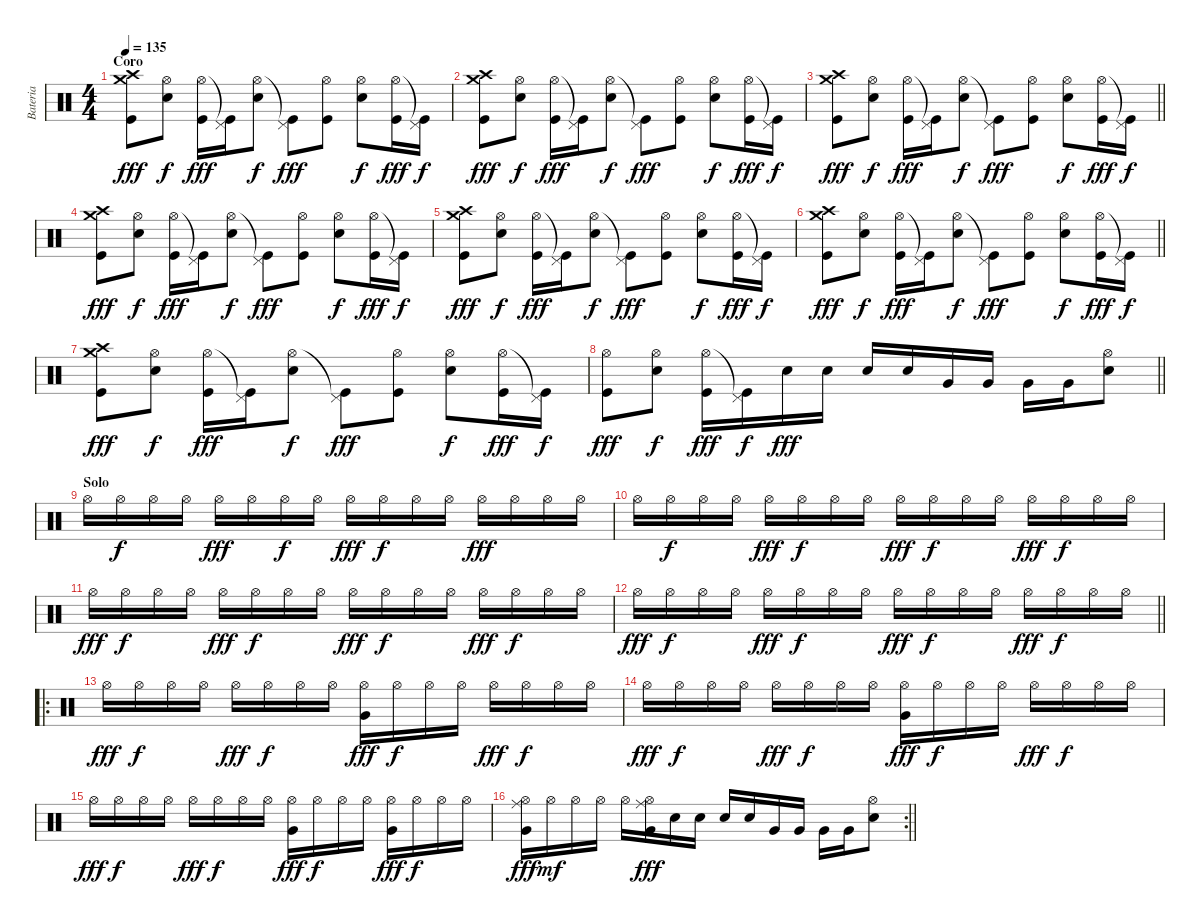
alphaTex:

\track ("Bateria" "Bateria") {instrument percussion}
\staff {score}
\articulation defaults
\ts (4 4)
\section ("" "Coro")
\tempo 135
\clef neutral
\ks c
("Crash high (hit)" "Crash medium (hit)" "Kick (hit)").8{dy fff} ("Hi-Hat (open)" "Electric Snare (hit)").8{dy f} ("Hi-Hat (open)" "Kick (hit)").16{dy fff} ("Pedal Hi-Hat (hit)"{t} "Kick (hit)").16 ("Hi-Hat (open)" "Electric Snare (hit)").8{dy f} ("Pedal Hi-Hat (hit)"{t} "Kick (hit)").8{dy fff} ("Hi-Hat (open)" "Kick (hit)").8 ("Hi-Hat (open)" "Electric Snare (hit)").8{dy f} ("Hi-Hat (open)" "Kick (hit)").16{dy fff} ("Pedal Hi-Hat (hit)"{t} "Kick (hit)").16{dy f} |
("Crash high (hit)" "Crash medium (hit)" "Kick (hit)").8{dy fff} ("Hi-Hat (open)" "Electric Snare (hit)").8{dy f} ("Hi-Hat (open)" "Kick (hit)").16{dy fff} ("Pedal Hi-Hat (hit)"{t} "Kick (hit)").16 ("Hi-Hat (open)" "Electric Snare (hit)").8{dy f} ("Pedal Hi-Hat (hit)"{t} "Kick (hit)").8{dy fff} ("Hi-Hat (open)" "Kick (hit)").8 ("Hi-Hat (open)" "Electric Snare (hit)").8{dy f} ("Hi-Hat (open)" "Kick (hit)").16{dy fff} ("Pedal Hi-Hat (hit)"{t} "Kick (hit)").16{dy f} |
\barLineRight lightlight
("Crash high (hit)" "Crash medium (hit)" "Kick (hit)").8{dy fff} ("Hi-Hat (open)" "Electric Snare (hit)").8{dy f} ("Hi-Hat (open)" "Kick (hit)").16{dy fff} ("Pedal Hi-Hat (hit)"{t} "Kick (hit)").16 ("Hi-Hat (open)" "Electric Snare (hit)").8{dy f} ("Pedal Hi-Hat (hit)"{t} "Kick (hit)").8{dy fff} ("Hi-Hat (open)" "Kick (hit)").8 ("Hi-Hat (open)" "Electric Snare (hit)").8{dy f} ("Hi-Hat (open)" "Kick (hit)").16{dy fff} ("Pedal Hi-Hat (hit)"{t} "Kick (hit)").16{dy f} |
("Crash high (hit)" "Crash medium (hit)" "Kick (hit)").8{dy fff} ("Hi-Hat (open)" "Electric Snare (hit)").8{dy f} ("Hi-Hat (open)" "Kick (hit)").16{dy fff} ("Pedal Hi-Hat (hit)"{t} "Kick (hit)").16 ("Hi-Hat (open)" "Electric Snare (hit)").8{dy f} ("Pedal Hi-Hat (hit)"{t} "Kick (hit)").8{dy fff} ("Hi-Hat (open)" "Kick (hit)").8 ("Hi-Hat (open)" "Electric Snare (hit)").8{dy f} ("Hi-Hat (open)" "Kick (hit)").16{dy fff} ("Pedal Hi-Hat (hit)"{t} "Kick (hit)").16{dy f} |
("Crash high (hit)" "Crash medium (hit)" "Kick (hit)").8{dy fff} ("Hi-Hat (open)" "Electric Snare (hit)").8{dy f} ("Hi-Hat (open)" "Kick (hit)").16{dy fff} ("Pedal Hi-Hat (hit)"{t} "Kick (hit)").16 ("Hi-Hat (open)" "Electric Snare (hit)").8{dy f} ("Pedal Hi-Hat (hit)"{t} "Kick (hit)").8{dy fff} ("Hi-Hat (open)" "Kick (hit)").8 ("Hi-Hat (open)" "Electric Snare (hit)").8{dy f} ("Hi-Hat (open)" "Kick (hit)").16{dy fff} ("Pedal Hi-Hat (hit)"{t} "Kick (hit)").16{dy f} |
\barLineRight lightlight
("Crash high (hit)" "Crash medium (hit)" "Kick (hit)").8{dy fff} ("Hi-Hat (open)" "Electric Snare (hit)").8{dy f} ("Hi-Hat (open)" "Kick (hit)").16{dy fff} ("Pedal Hi-Hat (hit)"{t} "Kick (hit)").16 ("Hi-Hat (open)" "Electric Snare (hit)").8{dy f} ("Pedal Hi-Hat (hit)"{t} "Kick (hit)").8{dy fff} ("Hi-Hat (open)" "Kick (hit)").8 ("Hi-Hat (open)" "Electric Snare (hit)").8{dy f} ("Hi-Hat (open)" "Kick (hit)").16{dy fff} ("Pedal Hi-Hat (hit)"{t} "Kick (hit)").16{dy f} |
("Crash high (hit)" "Crash medium (hit)" "Kick (hit)").8{dy fff} ("Hi-Hat (open)" "Electric Snare (hit)").8{dy f} ("Hi-Hat (open)" "Kick (hit)").16{dy fff} ("Pedal Hi-Hat (hit)"{t} "Kick (hit)").16 ("Hi-Hat (open)" "Electric Snare (hit)").8{dy f} ("Pedal Hi-Hat (hit)"{t} "Kick (hit)").8{dy fff} ("Hi-Hat (open)" "Kick (hit)").8 ("Hi-Hat (open)" "Electric Snare (hit)").8{dy f} ("Hi-Hat (open)" "Kick (hit)").16{dy fff} ("Pedal Hi-Hat (hit)"{t} "Kick (hit)").16{dy f} |
\barLineRight lightlight
("Hi-Hat (open)" "Kick (hit)").8{dy fff} ("Hi-Hat (open)" "Electric Snare (hit)").8{dy f} ("Hi-Hat (open)" "Kick (hit)").16{dy fff} ("Pedal Hi-Hat (hit)"{t} "Kick (hit)").16{dy f} "Electric Snare (hit)".16{dy fff} "Electric Snare (hit)".16 "Electric Snare (hit)".16 "Electric Snare (hit)".16 "Very Low Tom (hit)".16 "Very Low Tom (hit)".16 "Very Low Tom (hit)".16 "Very Low Tom (hit)".16 ("Hi-Hat (open)" "Electric Snare (hit)").8 |
\section ("" "Solo")
"Hi-Hat (open)".16 "Hi-Hat (open)".16{dy f} "Hi-Hat (open)".16 "Hi-Hat (open)".16 "Hi-Hat (open)".16{dy fff} "Hi-Hat (open)".16 "Hi-Hat (open)".16{dy f} "Hi-Hat (open)".16 "Hi-Hat (open)".16{dy fff} "Hi-Hat (open)".16{dy f} "Hi-Hat (open)".16 "Hi-Hat (open)".16 "Hi-Hat (open)".16{dy fff} "Hi-Hat (open)".16 "Hi-Hat (open)".16 "Hi-Hat (open)".16 |
"Hi-Hat (open)".16 "Hi-Hat (open)".16{dy f} "Hi-Hat (open)".16 "Hi-Hat (open)".16 "Hi-Hat (open)".16{dy fff} "Hi-Hat (open)".16{dy f} "Hi-Hat (open)".16 "Hi-Hat (open)".16 "Hi-Hat (open)".16{dy fff} "Hi-Hat (open)".16{dy f} "Hi-Hat (open)".16 "Hi-Hat (open)".16 "Hi-Hat (open)".16{dy fff} "Hi-Hat (open)".16{dy f} "Hi-Hat (open)".16 "Hi-Hat (open)".16 |
"Hi-Hat (open)".16{dy fff} "Hi-Hat (open)".16{dy f} "Hi-Hat (open)".16 "Hi-Hat (open)".16 "Hi-Hat (open)".16{dy fff} "Hi-Hat (open)".16{dy f} "Hi-Hat (open)".16 "Hi-Hat (open)".16 "Hi-Hat (open)".16{dy fff} "Hi-Hat (open)".16{dy f} "Hi-Hat (open)".16 "Hi-Hat (open)".16 "Hi-Hat (open)".16{dy fff} "Hi-Hat (open)".16{dy f} "Hi-Hat (open)".16 "Hi-Hat (open)".16 |
\barLineRight lightlight "Hi-Hat (open)".16{dy fff} "Hi-Hat (open)".16{dy f} "Hi-Hat (open)".16 "Hi-Hat (open)".16 "Hi-Hat (open)".16{dy fff} "Hi-Hat (open)".16{dy f} "Hi-Hat (open)".16 "Hi-Hat (open)".16 "Hi-Hat (open)".16{dy fff} "Hi-Hat (open)".16{dy f} "Hi-Hat (open)".16 "Hi-Hat (open)".16 "Hi-Hat (open)".16{dy fff} "Hi-Hat (open)".16{dy f} "Hi-Hat (open)".16 "Hi-Hat (open)".16
|
\ro "Hi-Hat (open)".16{dy fff} "Hi-Hat (open)".16{dy f} "Hi-Hat (open)".16 "Hi-Hat (open)".16 "Hi-Hat (open)".16{dy fff} "Hi-Hat (open)".16{dy f} "Hi-Hat (open)".16 "Hi-Hat (open)".16
("Very Low Tom (hit)" "Hi-Hat (open)").16{dy fff} "Hi-Hat (open)".16{dy f} "Hi-Hat (open)".16 "Hi-Hat (open)".16 "Hi-Hat (open)".16{dy fff} "Hi-Hat (open)".16{dy f} "Hi-Hat (open)".16 "Hi-Hat (open)".16 |
"Hi-Hat (open)".16{dy fff} "Hi-Hat (open)".16{dy f} "Hi-Hat (open)".16 "Hi-Hat (open)".16 "Hi-Hat (open)".16{dy fff} "Hi-Hat (open)".16{dy f} "Hi-Hat (open)".16 "Hi-Hat (open)".16 ("Very Low Tom (hit)" "Hi-Hat (open)").16{dy fff} "Hi-Hat (open)".16{dy f} "Hi-Hat (open)".16 "Hi-Hat (open)".16 "Hi-Hat (open)".16{dy fff} "Hi-Hat (open)".16{dy f} "Hi-Hat (open)".16 "Hi-Hat (open)".16 |
"Hi-Hat (open)".16{dy fff} "Hi-Hat (open)".16{dy f} "Hi-Hat (open)".16 "Hi-Hat (open)".16 "Hi-Hat (open)".16{dy fff} "Hi-Hat (open)".16{dy f} "Hi-Hat (open)".16 "Hi-Hat (open)".16 ("Very Low Tom (hit)" "Hi-Hat (open)").16{dy fff} "Hi-Hat (open)".16{dy f} "Hi-Hat (open)".16 "Hi-Hat (open)".16 ("Very Low Tom (hit)" "Hi-Hat (open)").16{dy fff} "Hi-Hat (open)".16{dy f} "Hi-Hat (open)".16 "Hi-Hat (open)".16 |
\rc 2
\barLineRight lightlight
("Very Low Tom (hit)" "Hi-Hat (open)" "Ride (middle)").16{dy fff} "Hi-Hat (open)".16{dy mf} "Hi-Hat (open)".16 "Hi-Hat (open)".16 "Hi-Hat (open)".16 ("Very Low Tom (hit)" "Hi-Hat (open)" "Ride (middle)").16{dy fff} "Electric Snare (hit)".16 "Electric Snare (hit)".16 "Electric Snare (hit)".16 "Electric Snare (hit)".16 "Very Low Tom (hit)".16 "Very Low Tom (hit)".16 "Very Low Tom (hit)".16 "Very Low Tom (hit)".16 ("Hi-Hat (open)" "Electric Snare (hit)").8
